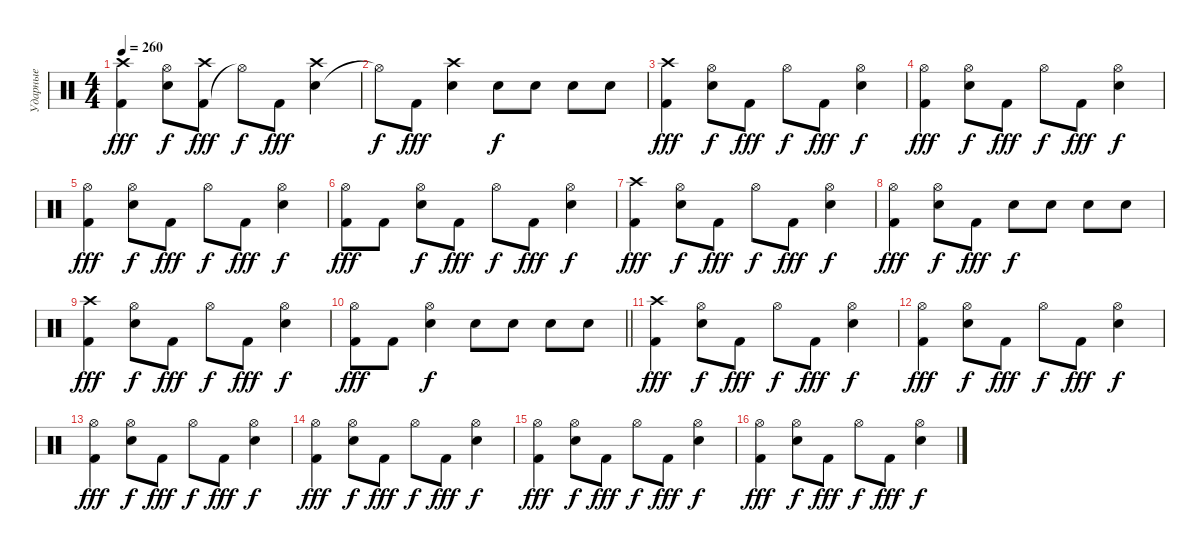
\track ("Ударные" "Ударные") {instrument percussion}
\staff {score}
\articulation defaults
\ts (4 4)
\tempo 260
\clef neutral
\ks c
("Kick (hit) 2" "Crash high (hit)").4{dy fff} ("Snare (hit) 2" "Hi-Hat (open)").8{dy f} ("Kick (hit) 2" "Crash high (hit)").8{dy fff} "Hi-Hat (open)"{t}.8{dy f} "Kick (hit) 2".8{dy fff} ("Snare (hit) 2" "Crash high (hit)").4 |
"Hi-Hat (open)"{t}.8{dy f} "Kick (hit) 2".8{dy fff} ("Snare (hit) 2" "Crash high (hit)").4 "Snare (hit) 2".8{dy f} "Snare (hit) 2".8 "Snare (hit) 2".8 "Snare (hit) 2".8 |
("Kick (hit) 2" "Crash high (hit)").4{dy fff} ("Snare (hit) 2" "Hi-Hat (open)").8{dy f} "Kick (hit) 2".8{dy fff} "Hi-Hat (open)".8{dy f} "Kick (hit) 2".8{dy fff} ("Snare (hit) 2" "Hi-Hat (open)").4{dy f} |
("Kick (hit) 2" "Hi-Hat (open)").4{dy fff} ("Snare (hit) 2" "Hi-Hat (open)").8{dy f} "Kick (hit) 2".8{dy fff} "Hi-Hat (open)".8{dy f} "Kick (hit) 2".8{dy fff} ("Snare (hit) 2" "Hi-Hat (open)").4{dy f} |
("Kick (hit) 2" "Hi-Hat (open)").4{dy fff} ("Snare (hit) 2" "Hi-Hat (open)").8{dy f} "Kick (hit) 2".8{dy fff} "Hi-Hat (open)".8{dy f} "Kick (hit) 2".8{dy fff} ("Snare (hit) 2" "Hi-Hat (open)").4{dy f} |
("Kick (hit) 2" "Hi-Hat (open)").8{dy fff} "Kick (hit) 2".8 ("Snare (hit) 2" "Hi-Hat (open)").8{dy f} "Kick (hit) 2".8{dy fff} "Hi-Hat (open)".8{dy f} "Kick (hit) 2".8{dy fff} ("Snare (hit) 2" "Hi-Hat (open)").4{dy f} |
("Kick (hit) 2" "Crash high (hit)").4{dy fff} ("Snare (hit) 2" "Hi-Hat (open)").8{dy f} "Kick (hit) 2".8{dy fff} "Hi-Hat (open)".8{dy f} "Kick (hit) 2".8{dy fff} ("Snare (hit) 2" "Hi-Hat (open)").4{dy f} |
("Kick (hit) 2" "Hi-Hat (open)").4{dy fff} ("Snare (hit) 2" "Hi-Hat (open)").8{dy f} "Kick (hit) 2".8{dy fff} "Snare (hit) 2".8{dy f} "Snare (hit) 2".8 "Snare (hit) 2".8 "Snare (hit) 2".8 |
("Kick (hit) 2" "Crash high (hit)").4{dy fff} ("Snare (hit) 2" "Hi-Hat (open)").8{dy f} "Kick (hit) 2".8{dy fff} "Hi-Hat (open)".8{dy f} "Kick (hit) 2".8{dy fff} ("Snare (hit) 2" "Hi-Hat (open)").4{dy f} |
\barLineRight lightlight
("Kick (hit) 2" "Hi-Hat (open)").8{dy fff} "Kick (hit) 2".8 ("Snare (hit) 2" "Hi-Hat (open)").4{dy f} "Snare (hit) 2".8 "Snare (hit) 2".8 "Snare (hit) 2".8 "Snare (hit) 2".8 |
("Kick (hit) 2" "Crash high (hit)").4{dy fff} ("Snare (hit) 2" "Hi-Hat (open)").8{dy f} "Kick (hit) 2".8{dy fff} "Hi-Hat (open)".8{dy f} "Kick (hit) 2".8{dy fff} ("Snare (hit) 2" "Hi-Hat (open)").4{dy f} |
("Kick (hit) 2" "Hi-Hat (open)").4{dy fff} ("Snare (hit) 2" "Hi-Hat (open)").8{dy f} "Kick (hit) 2".8{dy fff} "Hi-Hat (open)".8{dy f} "Kick (hit) 2".8{dy fff} ("Snare (hit) 2" "Hi-Hat (open)").4{dy f} |
("Kick (hit) 2" "Hi-Hat (open)").4{dy fff} ("Snare (hit) 2" "Hi-Hat (open)").8{dy f} "Kick (hit) 2".8{dy fff} "Hi-Hat (open)".8{dy f} "Kick (hit) 2".8{dy fff} ("Snare (hit) 2" "Hi-Hat (open)").4{dy f} |
("Kick (hit) 2" "Hi-Hat (open)").4{dy fff} ("Snare (hit) 2" "Hi-Hat (open)").8{dy f} "Kick (hit) 2".8{dy fff} "Hi-Hat (open)".8{dy f} "Kick (hit) 2".8{dy fff} ("Snare (hit) 2" "Hi-Hat (open)").4{dy f} |
("Kick (hit) 2" "Hi-Hat (open)").4{dy fff} ("Snare (hit) 2" "Hi-Hat (open)").8{dy f} "Kick (hit) 2".8{dy fff} "Hi-Hat (open)".8{dy f} "Kick (hit) 2".8{dy fff} ("Snare (hit) 2" "Hi-Hat (open)").4{dy f} |
("Kick (hit) 2" "Hi-Hat (open)").4{dy fff} ("Snare (hit) 2" "Hi-Hat (open)").8{dy f} "Kick (hit) 2".8{dy fff} "Hi-Hat (open)".8{dy f} "Kick (hit) 2".8{dy fff} ("Snare (hit) 2" "Hi-Hat (open)").4{dy f}
